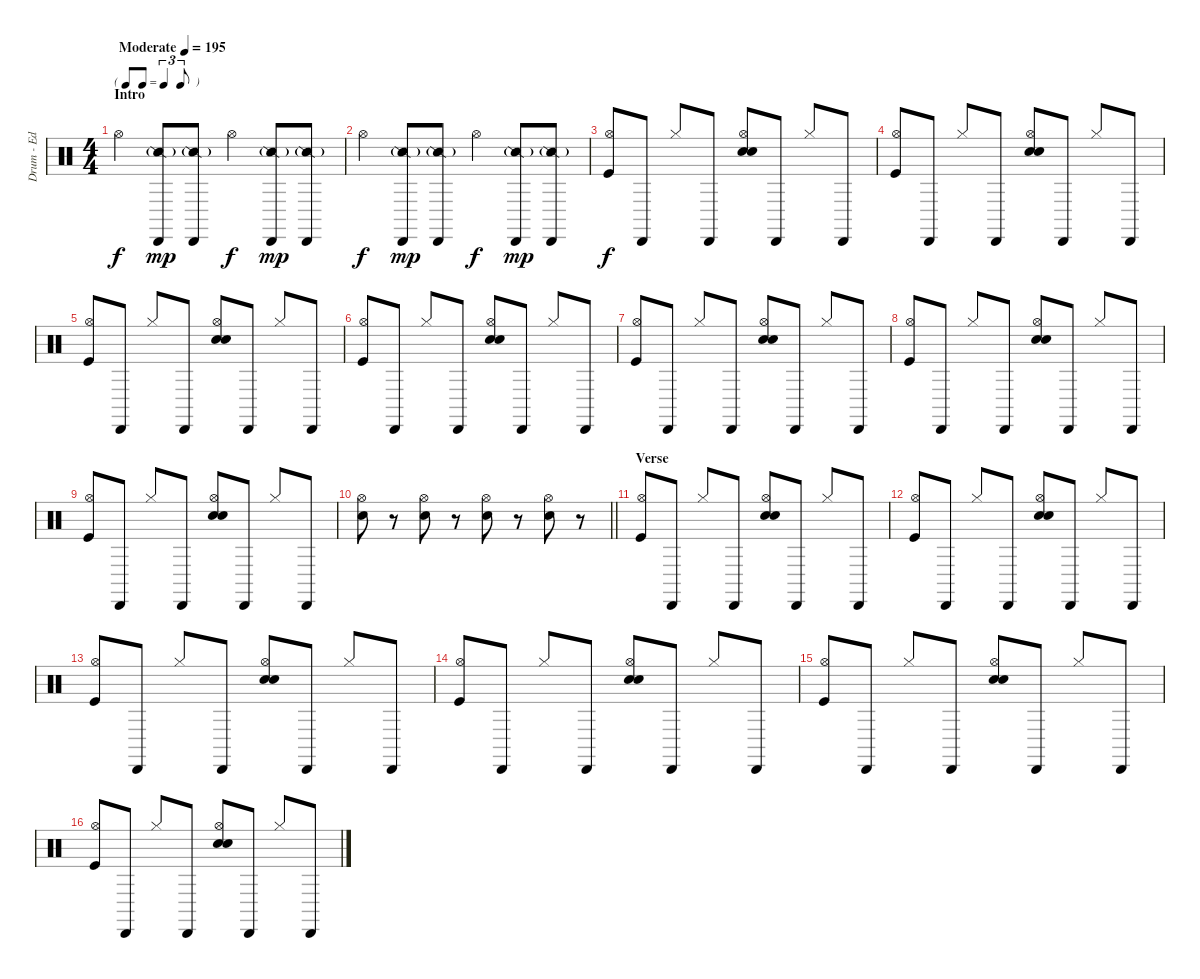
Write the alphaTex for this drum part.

\track ("Drum - Ed" "Drum - Ed") {instrument percussion}
\staff {score}
\articulation defaults
\ts (4 4)
\tf triplet8th
\section ("" "Intro")
\tempo (195 "Moderate")
\clef neutral
\ks c "Hi-Hat (open)".4{dy f}
("Cabasa (hit)" "Snare (side stick) 2"{g}).8{dy mp} ("Cabasa (hit)" "Snare (side stick) 2"{g}).8 "Hi-Hat (open)".4{dy f} ("Cabasa (hit)" "Snare (side stick) 2"{g}).8{dy mp} ("Cabasa (hit)" "Snare (side stick) 2"{g}).8 |
"Hi-Hat (open)".4{dy f} ("Cabasa (hit)" "Snare (side stick) 2"{g}).8{dy mp} ("Cabasa (hit)" "Snare (side stick) 2"{g}).8 "Hi-Hat (open)".4{dy f} ("Cabasa (hit)" "Snare (side stick) 2"{g}).8{dy mp} ("Cabasa (hit)" "Snare (side stick) 2"{g}).8 |
("Hi-Hat (open)" "Kick (hit)").8{dy f} "Cabasa (hit)".8 "Hi-Hat (closed)".8 "Cabasa (hit)".8 ("Hi-Hat (open)" "Hand Clap (hit)" "Electric Snare (hit)").8 "Cabasa (hit)".8 "Hi-Hat (closed)".8 "Cabasa (hit)".8 |
("Hi-Hat (open)" "Kick (hit)").8 "Cabasa (hit)".8 "Hi-Hat (closed)".8 "Cabasa (hit)".8 ("Hi-Hat (open)" "Hand Clap (hit)" "Electric Snare (hit)").8 "Cabasa (hit)".8 "Hi-Hat (closed)".8 "Cabasa (hit)".8 |
("Hi-Hat (open)" "Kick (hit)").8 "Cabasa (hit)".8 "Hi-Hat (closed)".8 "Cabasa (hit)".8 ("Hi-Hat (open)" "Hand Clap (hit)" "Electric Snare (hit)").8 "Cabasa (hit)".8 "Hi-Hat (closed)".8 "Cabasa (hit)".8 |
("Hi-Hat (open)" "Kick (hit)").8 "Cabasa (hit)".8 "Hi-Hat (closed)".8 "Cabasa (hit)".8 ("Hi-Hat (open)" "Hand Clap (hit)" "Electric Snare (hit)").8 "Cabasa (hit)".8 "Hi-Hat (closed)".8 "Cabasa (hit)".8 |
("Hi-Hat (open)" "Kick (hit)").8 "Cabasa (hit)".8 "Hi-Hat (closed)".8 "Cabasa (hit)".8 ("Hi-Hat (open)" "Hand Clap (hit)" "Electric Snare (hit)").8 "Cabasa (hit)".8 "Hi-Hat (closed)".8 "Cabasa (hit)".8 |
("Hi-Hat (open)" "Kick (hit)").8 "Cabasa (hit)".8 "Hi-Hat (closed)".8 "Cabasa (hit)".8 ("Hi-Hat (open)" "Hand Clap (hit)" "Electric Snare (hit)").8 "Cabasa (hit)".8 "Hi-Hat (closed)".8 "Cabasa (hit)".8 |
("Hi-Hat (open)" "Kick (hit)").8 "Cabasa (hit)".8 "Hi-Hat (closed)".8 "Cabasa (hit)".8 ("Hi-Hat (open)" "Hand Clap (hit)" "Electric Snare (hit)").8 "Cabasa (hit)".8 "Hi-Hat (closed)".8 "Cabasa (hit)".8 |
\barLineRight lightlight
("Hi-Hat (open)" "Electric Snare (hit)").8 r.8 ("Hi-Hat (open)" "Electric Snare (hit)").8 r.8 ("Hi-Hat (open)" "Electric Snare (hit)").8 r.8 ("Hi-Hat (open)" "Electric Snare (hit)").8 r.8 |
\section ("" "Verse")
("Hi-Hat (open)" "Kick (hit)").8 "Cabasa (hit)".8 "Hi-Hat (closed)".8 "Cabasa (hit)".8 ("Hi-Hat (open)" "Hand Clap (hit)" "Electric Snare (hit)").8 "Cabasa (hit)".8 "Hi-Hat (closed)".8 "Cabasa (hit)".8 |
("Hi-Hat (open)" "Kick (hit)").8 "Cabasa (hit)".8 "Hi-Hat (closed)".8 "Cabasa (hit)".8 ("Hi-Hat (open)" "Hand Clap (hit)" "Electric Snare (hit)").8 "Cabasa (hit)".8 "Hi-Hat (closed)".8 "Cabasa (hit)".8 |
("Hi-Hat (open)" "Kick (hit)").8 "Cabasa (hit)".8 "Hi-Hat (closed)".8 "Cabasa (hit)".8 ("Hi-Hat (open)" "Hand Clap (hit)" "Electric Snare (hit)").8 "Cabasa (hit)".8 "Hi-Hat (closed)".8 "Cabasa (hit)".8 |
("Hi-Hat (open)" "Kick (hit)").8 "Cabasa (hit)".8 "Hi-Hat (closed)".8 "Cabasa (hit)".8 ("Hi-Hat (open)" "Hand Clap (hit)" "Electric Snare (hit)").8 "Cabasa (hit)".8 "Hi-Hat (closed)".8 "Cabasa (hit)".8 |
("Hi-Hat (open)" "Kick (hit)").8 "Cabasa (hit)".8 "Hi-Hat (closed)".8 "Cabasa (hit)".8 ("Hi-Hat (open)" "Hand Clap (hit)" "Electric Snare (hit)").8 "Cabasa (hit)".8 "Hi-Hat (closed)".8 "Cabasa (hit)".8 |
("Hi-Hat (open)" "Kick (hit)").8 "Cabasa (hit)".8 "Hi-Hat (closed)".8 "Cabasa (hit)".8 ("Hi-Hat (open)" "Hand Clap (hit)" "Electric Snare (hit)").8 "Cabasa (hit)".8 "Hi-Hat (closed)".8 "Cabasa (hit)".8
